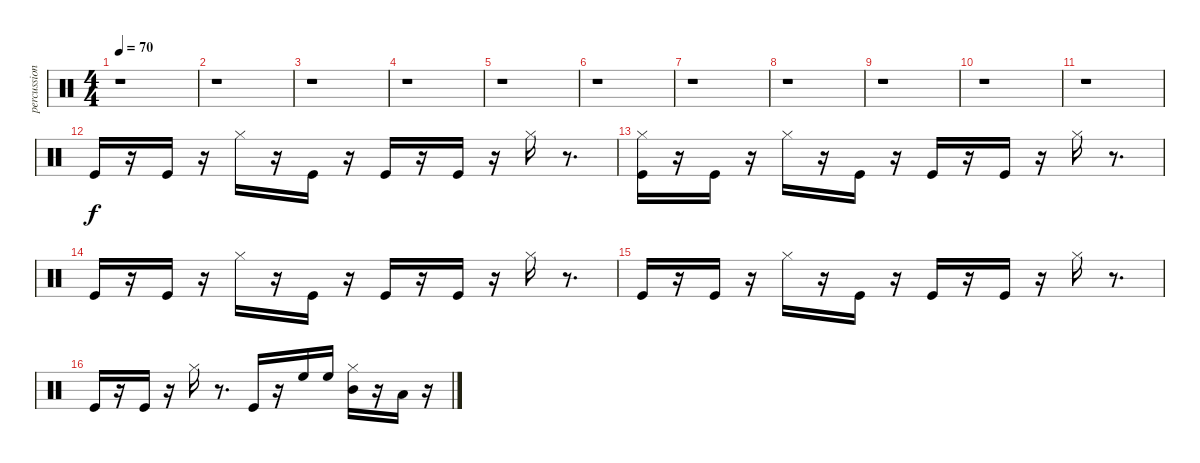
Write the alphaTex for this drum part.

\track ("percussion" "percussion") {instrument percussion}
\staff {score}
\articulation defaults
\ts (4 4)
\tempo 70
\clef neutral
\ks c
r.1{dy f} |
r.1 |
r.1 |
r.1 |
r.1 |
r.1 |
r.1 |
r.1 |
r.1 |
r.1 |
r.1 |
"Kick (hit)".16 r.16 "Kick (hit)".16 r.16 "Hi-Hat (closed)".16 r.16 "Kick (hit)".16 r.16 "Kick (hit)".16 r.16 "Kick (hit)".16 r.16 "Hi-Hat (closed)".16 r.8{d} |
("Hi-Hat (closed)" "Kick (hit)").16 r.16 "Kick (hit)".16 r.16 "Hi-Hat (closed)".16 r.16 "Kick (hit)".16 r.16 "Kick (hit)".16 r.16 "Kick (hit)".16 r.16 "Hi-Hat (closed)".16 r.8{d} |
"Kick (hit)".16 r.16 "Kick (hit)".16 r.16 "Hi-Hat (closed)".16 r.16 "Kick (hit)".16 r.16 "Kick (hit)".16 r.16 "Kick (hit)".16 r.16 "Hi-Hat (closed)".16 r.8{d} |
"Kick (hit)".16 r.16 "Kick (hit)".16 r.16 "Hi-Hat (closed)".16 r.16 "Kick (hit)".16 r.16 "Kick (hit)".16 r.16 "Kick (hit)".16 r.16 "Hi-Hat (closed)".16 r.8{d} |
"Kick (hit)".16 r.16 "Kick (hit)".16 r.16 "Hi-Hat (closed)".16 r.8{d} "Kick (hit)".16 r.16 "High Floor Tom (hit)".16 "High Floor Tom (hit)".16 ("Hi-Hat (closed)" "Mid Tom (hit)").16 r.16 "Low Tom (hit)".16 r.16
